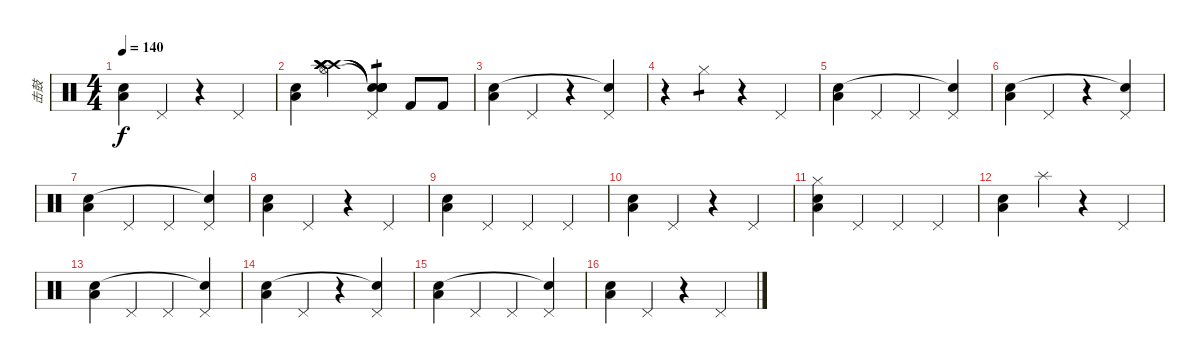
\track ("击鼓" "击鼓") {instrument percussion}
\staff {score}
\articulation defaults
\ts (4 4)
\tempo 140
\clef neutral
\ks c
("Low Floor Tom (hit)" "Snare (hit) 2").4{dy f} "Pedal Hi-Hat (hit)".4 r.4 "Pedal Hi-Hat (hit)".4 |
("Low Floor Tom (hit)" "Snare (hit) 2").4 ("Crash high (hit)" "Crash high (hit)" "Crash high (hit)" "Crash high (hit)" "Hi-Hat (open)").4 ("Snare (hit)"{t} "Snare (hit)"{t} "Snare (hit)"{t} "Pedal Hi-Hat (hit)" "Snare (hit)"{t}).4{tp 1} "Kick (hit) 2".8 "Kick (hit) 2".8 |
("Low Floor Tom (hit)" "Snare (hit) 2").4 "Pedal Hi-Hat (hit)".4 r.4 ("Pedal Hi-Hat (hit)" "Snare (hit)"{t}).4 |
r.4 "Hi-Hat (closed)".4{tp 1} r.4 "Pedal Hi-Hat (hit)".4 |
("Low Floor Tom (hit)" "Snare (hit) 2").4 "Pedal Hi-Hat (hit)".4 "Pedal Hi-Hat (hit)".4 ("Pedal Hi-Hat (hit)" "Snare (hit)"{t}).4 |
("Low Floor Tom (hit)" "Snare (hit) 2").4 "Pedal Hi-Hat (hit)".4 r.4 ("Pedal Hi-Hat (hit)" "Snare (hit)"{t}).4 |
("Low Floor Tom (hit)" "Snare (hit) 2").4 "Pedal Hi-Hat (hit)".4 "Pedal Hi-Hat (hit)".4 ("Pedal Hi-Hat (hit)" "Snare (hit)"{t}).4 |
("Low Floor Tom (hit)" "Snare (hit) 2").4 "Pedal Hi-Hat (hit)".4 r.4 "Pedal Hi-Hat (hit)".4 |
("Low Floor Tom (hit)" "Snare (hit) 2").4 "Pedal Hi-Hat (hit)".4 "Pedal Hi-Hat (hit)".4 "Pedal Hi-Hat (hit)".4 |
("Low Floor Tom (hit)" "Snare (hit) 2").4 "Pedal Hi-Hat (hit)".4 r.4 "Pedal Hi-Hat (hit)".4 |
("Hi-Hat (closed)" "Low Floor Tom (hit)" "Snare (hit) 2").4 "Pedal Hi-Hat (hit)".4 "Pedal Hi-Hat (hit)".4 "Pedal Hi-Hat (hit)".4 |
("Low Floor Tom (hit)" "Snare (hit) 2").4 "Splash (hit)".4 r.4 "Pedal Hi-Hat (hit)".4 |
("Low Floor Tom (hit)" "Snare (hit) 2").4 "Pedal Hi-Hat (hit)".4 "Pedal Hi-Hat (hit)".4 ("Pedal Hi-Hat (hit)" "Snare (hit)"{t}).4 |
("Low Floor Tom (hit)" "Snare (hit) 2").4 "Pedal Hi-Hat (hit)".4 r.4 ("Pedal Hi-Hat (hit)" "Snare (hit)"{t}).4 |
("Low Floor Tom (hit)" "Snare (hit) 2").4 "Pedal Hi-Hat (hit)".4 "Pedal Hi-Hat (hit)".4 ("Pedal Hi-Hat (hit)" "Snare (hit)"{t}).4 |
("Low Floor Tom (hit)" "Snare (hit) 2").4 "Pedal Hi-Hat (hit)".4 r.4 "Pedal Hi-Hat (hit)".4
